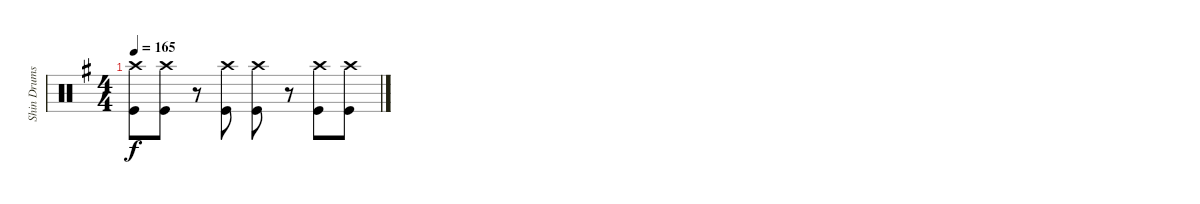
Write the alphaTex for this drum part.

\track ("Shin Drums" "Shin Drums") {instrument percussion}
\staff {score}
\articulation defaults
\ts (4 4)
\tempo 165
\clef neutral
\ks g
("Crash high (hit)" "Kick (hit)").8{dy f} ("Crash high (hit)" "Kick (hit)").8 r.8 ("Crash high (hit)" "Kick (hit)").8 ("Crash high (hit)" "Kick (hit)").8 r.8 ("Crash high (hit)" "Kick (hit)").8 ("Crash high (hit)" "Kick (hit)").8
